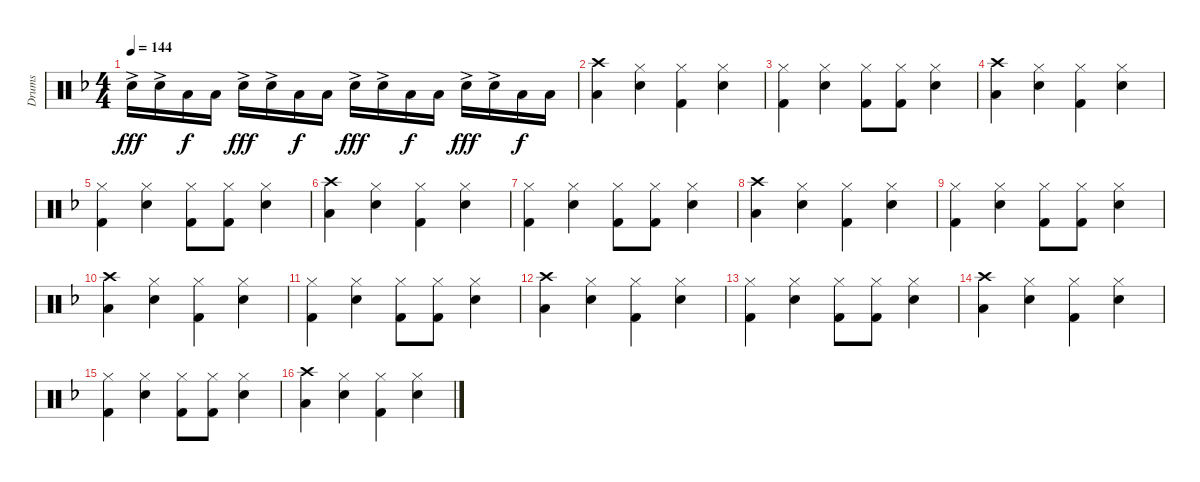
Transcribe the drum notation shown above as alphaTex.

\track ("Drums" "Drums") {instrument percussion}
\staff {score}
\articulation defaults
\ts (4 4)
\tempo 144
\clef neutral
\ks dminor "Snare (hit) 2"{ac}.16{dy fff} "Snare (hit) 2"{ac}.16 "Low Floor Tom (hit)".16{dy f} "Low Floor Tom (hit)".16 "Snare (hit) 2"{ac}.16{dy fff} "Snare (hit) 2"{ac}.16 "Low Floor Tom (hit)".16{dy f} "Low Floor Tom (hit)".16 "Snare (hit) 2"{ac}.16{dy fff} "Snare (hit) 2"{ac}.16 "Low Floor Tom (hit)".16{dy f} "Low Floor Tom (hit)".16 "Snare (hit) 2"{ac}.16{dy fff} "Snare (hit) 2"{ac}.16 "Low Floor Tom (hit)".16{dy f} "Low Floor Tom (hit)".16
|
("Crash high (hit)" "Low Floor Tom (hit)").4 ("Hi-Hat (closed)" "Snare (hit) 2").4 ("Hi-Hat (closed)" "Kick (hit) 2").4 ("Hi-Hat (closed)" "Snare (hit) 2").4 |
("Hi-Hat (closed)" "Kick (hit) 2").4 ("Hi-Hat (closed)" "Snare (hit) 2").4 ("Hi-Hat (closed)" "Kick (hit) 2").8 ("Hi-Hat (closed)" "Kick (hit) 2").8 ("Hi-Hat (closed)" "Snare (hit) 2").4 |
("Crash high (hit)" "Low Floor Tom (hit)").4 ("Hi-Hat (closed)" "Snare (hit) 2").4 ("Hi-Hat (closed)" "Kick (hit) 2").4 ("Hi-Hat (closed)" "Snare (hit) 2").4 |
("Hi-Hat (closed)" "Kick (hit) 2").4 ("Hi-Hat (closed)" "Snare (hit) 2").4 ("Hi-Hat (closed)" "Kick (hit) 2").8 ("Hi-Hat (closed)" "Kick (hit) 2").8 ("Hi-Hat (closed)" "Snare (hit) 2").4 |
("Crash high (hit)" "Low Floor Tom (hit)").4 ("Hi-Hat (closed)" "Snare (hit) 2").4 ("Hi-Hat (closed)" "Kick (hit) 2").4 ("Hi-Hat (closed)" "Snare (hit) 2").4 |
("Hi-Hat (closed)" "Kick (hit) 2").4 ("Hi-Hat (closed)" "Snare (hit) 2").4 ("Hi-Hat (closed)" "Kick (hit) 2").8 ("Hi-Hat (closed)" "Kick (hit) 2").8 ("Hi-Hat (closed)" "Snare (hit) 2").4 |
("Crash high (hit)" "Low Floor Tom (hit)").4 ("Hi-Hat (closed)" "Snare (hit) 2").4 ("Hi-Hat (closed)" "Kick (hit) 2").4 ("Hi-Hat (closed)" "Snare (hit) 2").4 |
("Hi-Hat (closed)" "Kick (hit) 2").4 ("Hi-Hat (closed)" "Snare (hit) 2").4 ("Hi-Hat (closed)" "Kick (hit) 2").8 ("Hi-Hat (closed)" "Kick (hit) 2").8 ("Hi-Hat (closed)" "Snare (hit) 2").4 |
("Crash high (hit)" "Low Floor Tom (hit)").4 ("Hi-Hat (closed)" "Snare (hit) 2").4 ("Hi-Hat (closed)" "Kick (hit) 2").4 ("Hi-Hat (closed)" "Snare (hit) 2").4 |
("Hi-Hat (closed)" "Kick (hit) 2").4 ("Hi-Hat (closed)" "Snare (hit) 2").4 ("Hi-Hat (closed)" "Kick (hit) 2").8 ("Hi-Hat (closed)" "Kick (hit) 2").8 ("Hi-Hat (closed)" "Snare (hit) 2").4 |
("Crash high (hit)" "Low Floor Tom (hit)").4 ("Hi-Hat (closed)" "Snare (hit) 2").4 ("Hi-Hat (closed)" "Kick (hit) 2").4 ("Hi-Hat (closed)" "Snare (hit) 2").4 |
("Hi-Hat (closed)" "Kick (hit) 2").4 ("Hi-Hat (closed)" "Snare (hit) 2").4 ("Hi-Hat (closed)" "Kick (hit) 2").8 ("Hi-Hat (closed)" "Kick (hit) 2").8 ("Hi-Hat (closed)" "Snare (hit) 2").4 |
("Crash high (hit)" "Low Floor Tom (hit)").4 ("Hi-Hat (closed)" "Snare (hit) 2").4 ("Hi-Hat (closed)" "Kick (hit) 2").4 ("Hi-Hat (closed)" "Snare (hit) 2").4 |
("Hi-Hat (closed)" "Kick (hit) 2").4 ("Hi-Hat (closed)" "Snare (hit) 2").4 ("Hi-Hat (closed)" "Kick (hit) 2").8 ("Hi-Hat (closed)" "Kick (hit) 2").8 ("Hi-Hat (closed)" "Snare (hit) 2").4 |
("Crash high (hit)" "Low Floor Tom (hit)").4 ("Hi-Hat (closed)" "Snare (hit) 2").4 ("Hi-Hat (closed)" "Kick (hit) 2").4 ("Hi-Hat (closed)" "Snare (hit) 2").4
